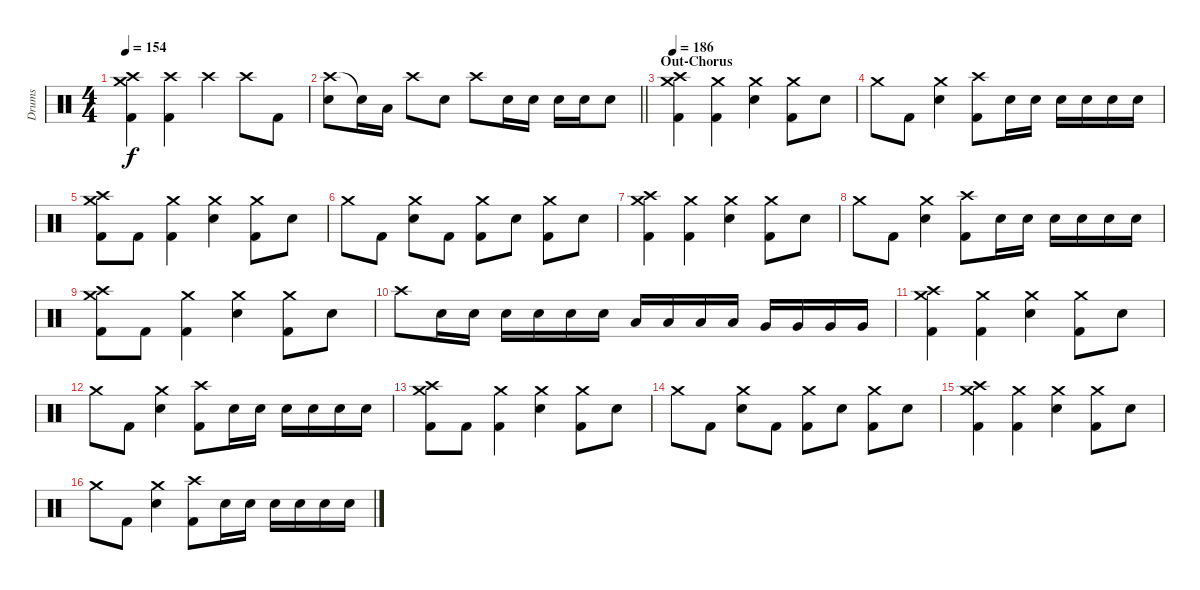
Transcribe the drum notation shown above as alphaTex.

\track ("Drums" "Drums") {instrument percussion}
\staff {score}
\articulation defaults
\ts (4 4)
\tempo 154
\clef neutral
\ks c
("Crash medium (hit)" "Crash high (hit)" "Kick (hit) 2").4{dy f} ("Crash high (hit)" "Kick (hit) 2").4 "Crash high (hit)".4 "Crash high (hit)".8 "Kick (hit) 2".8 |
\barLineRight lightlight
("Crash high (hit)" "Electric Snare (hit)").8 "Snare (hit)"{t}.16 "Low Tom (hit)".16 "Crash high (hit)".8 "Electric Snare (hit)".8 "Crash high (hit)".8 "Electric Snare (hit)".16 "Electric Snare (hit)".16 "Electric Snare (hit)".16 "Electric Snare (hit)".16 "Electric Snare (hit)".8 |
\section ("" "Out-Chorus")
\tempo 186
("Crash medium (hit)" "Crash high (hit)" "Kick (hit) 2").4 ("Crash medium (hit)" "Kick (hit) 2").4 ("Crash medium (hit)" "Electric Snare (hit)").4 ("Crash medium (hit)" "Kick (hit) 2").8 "Electric Snare (hit)".8 |
"Crash medium (hit)".8 "Kick (hit) 2".8 ("Crash medium (hit)" "Electric Snare (hit)").4 ("Crash high (hit)" "Kick (hit) 2").8 "Electric Snare (hit)".16 "Electric Snare (hit)".16 "Electric Snare (hit)".16 "Electric Snare (hit)".16 "Electric Snare (hit)".16 "Electric Snare (hit)".16 |
("Crash medium (hit)" "Crash high (hit)" "Kick (hit) 2").8 "Kick (hit) 2".8 ("Crash medium (hit)" "Kick (hit) 2").4 ("Crash medium (hit)" "Electric Snare (hit)").4 ("Crash medium (hit)" "Kick (hit) 2").8 "Electric Snare (hit)".8 |
"Crash medium (hit)".8 "Kick (hit) 2".8 ("Crash medium (hit)" "Electric Snare (hit)").8 "Kick (hit) 2".8 ("Crash medium (hit)" "Kick (hit) 2").8 "Electric Snare (hit)".8 ("Crash medium (hit)" "Kick (hit) 2").8 "Electric Snare (hit)".8 |
("Crash medium (hit)" "Crash high (hit)" "Kick (hit) 2").4 ("Crash medium (hit)" "Kick (hit) 2").4 ("Crash medium (hit)" "Electric Snare (hit)").4 ("Crash medium (hit)" "Kick (hit) 2").8 "Electric Snare (hit)".8 |
"Crash medium (hit)".8 "Kick (hit) 2".8 ("Crash medium (hit)" "Electric Snare (hit)").4 ("Crash high (hit)" "Kick (hit) 2").8 "Electric Snare (hit)".16 "Electric Snare (hit)".16 "Electric Snare (hit)".16 "Electric Snare (hit)".16 "Electric Snare (hit)".16 "Electric Snare (hit)".16 |
("Crash medium (hit)" "Crash high (hit)" "Kick (hit) 2").8 "Kick (hit) 2".8 ("Crash medium (hit)" "Kick (hit) 2").4 ("Crash medium (hit)" "Electric Snare (hit)").4 ("Crash medium (hit)" "Kick (hit) 2").8 "Electric Snare (hit)".8 |
"Crash high (hit)".8 "Electric Snare (hit)".16 "Electric Snare (hit)".16 "Electric Snare (hit)".16 "Electric Snare (hit)".16 "Electric Snare (hit)".16 "Electric Snare (hit)".16 "Low Tom (hit)".16 "Low Tom (hit)".16 "Low Tom (hit)".16 "Low Tom (hit)".16 "Very Low Tom (hit)".16 "Very Low Tom (hit)".16 "Very Low Tom (hit)".16 "Very Low Tom (hit)".16 |
("Crash medium (hit)" "Crash high (hit)" "Kick (hit) 2").4 ("Crash medium (hit)" "Kick (hit) 2").4 ("Crash medium (hit)" "Electric Snare (hit)").4 ("Crash medium (hit)" "Kick (hit) 2").8 "Electric Snare (hit)".8 |
"Crash medium (hit)".8 "Kick (hit) 2".8 ("Crash medium (hit)" "Electric Snare (hit)").4 ("Crash high (hit)" "Kick (hit) 2").8 "Electric Snare (hit)".16 "Electric Snare (hit)".16 "Electric Snare (hit)".16 "Electric Snare (hit)".16 "Electric Snare (hit)".16 "Electric Snare (hit)".16 |
("Crash medium (hit)" "Crash high (hit)" "Kick (hit) 2").8 "Kick (hit) 2".8 ("Crash medium (hit)" "Kick (hit) 2").4 ("Crash medium (hit)" "Electric Snare (hit)").4 ("Crash medium (hit)" "Kick (hit) 2").8 "Electric Snare (hit)".8 |
"Crash medium (hit)".8 "Kick (hit) 2".8 ("Crash medium (hit)" "Electric Snare (hit)").8 "Kick (hit) 2".8 ("Crash medium (hit)" "Kick (hit) 2").8 "Electric Snare (hit)".8 ("Crash medium (hit)" "Kick (hit) 2").8 "Electric Snare (hit)".8 |
("Crash medium (hit)" "Crash high (hit)" "Kick (hit) 2").4 ("Crash medium (hit)" "Kick (hit) 2").4 ("Crash medium (hit)" "Electric Snare (hit)").4 ("Crash medium (hit)" "Kick (hit) 2").8 "Electric Snare (hit)".8 |
"Crash medium (hit)".8 "Kick (hit) 2".8 ("Crash medium (hit)" "Electric Snare (hit)").4 ("Crash high (hit)" "Kick (hit) 2").8 "Electric Snare (hit)".16 "Electric Snare (hit)".16 "Electric Snare (hit)".16 "Electric Snare (hit)".16 "Electric Snare (hit)".16 "Electric Snare (hit)".16
